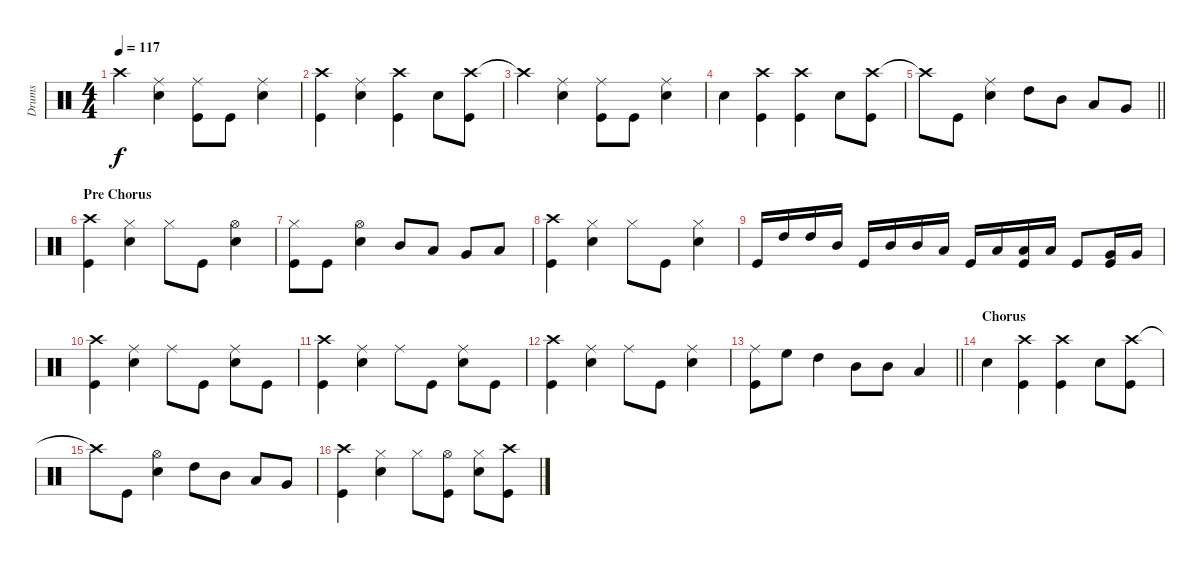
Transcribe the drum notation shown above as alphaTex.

\track ("Drums" "Drums") {instrument percussion}
\staff {score}
\articulation defaults
\ts (4 4)
\tempo 117
\clef neutral
\ks c "Crash high (hit)"{t}.4{dy f}
("Ride (middle)" "Snare (hit) 2").4 ("Ride (middle)" "Kick (hit)").8 "Kick (hit)".8 ("Ride (middle)" "Snare (hit) 2").4 |
("Crash high (hit)" "Kick (hit)").4 ("Ride (middle)" "Snare (hit) 2").4 ("Crash high (hit)" "Kick (hit)").4 "Snare (hit) 2".8 ("Crash high (hit)" "Kick (hit)").8 |
"Crash high (hit)"{t}.4 ("Ride (middle)" "Snare (hit) 2").4 ("Ride (middle)" "Kick (hit)").8 "Kick (hit)".8 ("Ride (middle)" "Snare (hit) 2").4 |
"Snare (hit) 2".4 ("Crash high (hit)" "Kick (hit)").4 ("Crash high (hit)" "Kick (hit)").4 "Snare (hit) 2".8 ("Crash high (hit)" "Kick (hit)").8 |
\barLineRight lightlight "Crash high (hit)"{t}.8 "Kick (hit)".8
("Snare (hit) 2" "Ride (middle)").4 "High Tom (hit)".8 "Mid Tom (hit)".8 "Low Tom (hit)".8 "Very Low Tom (hit)".8 |
\section ("" "Pre Chorus")
("Crash high (hit)" "Kick (hit)").4 ("Hi-Hat (closed)" "Snare (hit) 2").4 "Hi-Hat (closed)".8 "Kick (hit)".8 ("Hi-Hat (open)" "Snare (hit) 2").4 |
("Hi-Hat (closed)" "Kick (hit)").8 "Kick (hit)".8 ("Hi-Hat (open)" "Snare (hit) 2").4 "Mid Tom (hit)".8 "Low Tom (hit)".8 "Very Low Tom (hit)".8 "Low Floor Tom (hit)".8 |
("Crash high (hit)" "Kick (hit)").4 ("Hi-Hat (closed)" "Snare (hit) 2").4 "Hi-Hat (closed)".8 "Kick (hit)".8 ("Hi-Hat (closed)" "Snare (hit) 2").4 |
"Kick (hit)".16 "High Tom (hit)".16 "High Tom (hit)".16 "Mid Tom (hit)".16 "Kick (hit)".16 "Mid Tom (hit)".16 "Mid Tom (hit)".16 "Low Tom (hit)".16 "Kick (hit)".16 "Low Tom (hit)".16 ("Low Tom (hit)" "Kick (hit)").16 "Low Tom (hit)".16 "Kick (hit)".8 ("Kick (hit)" "Very Low Tom (hit)").16 "Very Low Tom (hit)".16 |
("Crash high (hit)" "Kick (hit)").4 ("Ride (middle)" "Snare (hit) 2").4 "Ride (middle)".8 "Kick (hit)".8 ("Ride (middle)" "Snare (hit) 2").8 "Kick (hit)".8 |
("Crash high (hit)" "Kick (hit)").4 ("Ride (middle)" "Snare (hit) 2").4 "Ride (middle)".8 "Kick (hit)".8 ("Ride (middle)" "Snare (hit) 2").8 "Kick (hit)".8 |
("Crash high (hit)" "Kick (hit)").4 ("Ride (middle)" "Snare (hit) 2").4 "Ride (middle)".8 "Kick (hit)".8 ("Ride (middle)" "Snare (hit) 2").4 |
\barLineRight lightlight
("Ride (middle)" "Kick (hit)").8 "High Floor Tom (hit)".8 "High Tom (hit)".4 "Mid Tom (hit)".8 "Mid Tom (hit)".8 "Low Tom (hit)".4 |
\section ("" "Chorus")
"Snare (hit) 2".4 ("Crash high (hit)" "Kick (hit)").4 ("Crash high (hit)" "Kick (hit)").4 "Snare (hit) 2".8 ("Crash high (hit)" "Kick (hit)").8 |
"Crash high (hit)"{t}.8 "Kick (hit)".8 ("Snare (hit) 2" "Hi-Hat (open)").4 "High Tom (hit)".8 "Mid Tom (hit)".8 "Low Tom (hit)".8 "Very Low Tom (hit)".8 |
("Crash high (hit)" "Kick (hit)").4 ("Hi-Hat (closed)" "Snare (hit) 2").4 "Hi-Hat (closed)".8 ("Hi-Hat (open)" "Kick (hit)").8 ("Hi-Hat (closed)" "Snare (hit) 2").8 ("Crash high (hit)" "Kick (hit)").8
